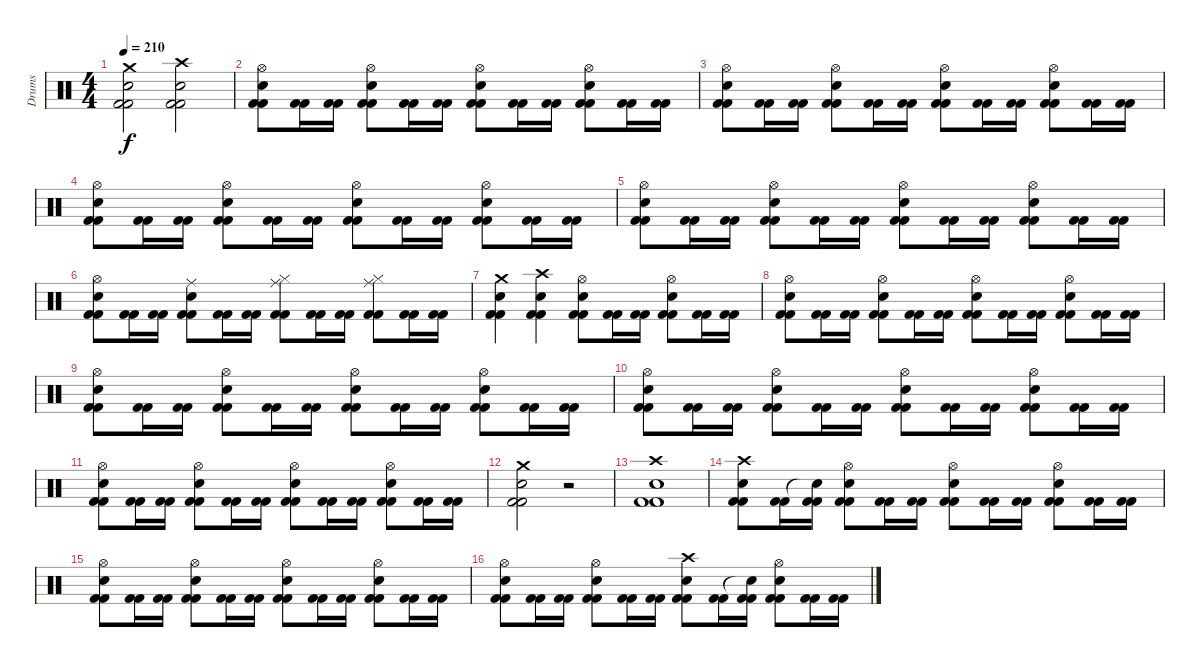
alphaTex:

\track ("Drums" "Drums") {instrument percussion}
\staff {score}
\articulation defaults
\ts (4 4)
\tempo 210
\clef neutral
\ks c
("Crash medium (hit)" "Snare (hit) 2" "Kick (hit) 2" "Kick (hit) 2").2{dy f} ("Crash high (hit)" "Snare (hit) 2" "Kick (hit) 2" "Kick (hit) 2").2 |
("Hi-Hat (open)" "Snare (hit) 2" "Kick (hit) 2" "Kick (hit) 2").8 ("Kick (hit) 2" "Kick (hit) 2").16 ("Kick (hit) 2" "Kick (hit) 2").16 ("Hi-Hat (open)" "Snare (hit) 2" "Kick (hit) 2" "Kick (hit) 2").8 ("Kick (hit) 2" "Kick (hit) 2").16 ("Kick (hit) 2" "Kick (hit) 2").16 ("Hi-Hat (open)" "Snare (hit) 2" "Kick (hit) 2" "Kick (hit) 2").8 ("Kick (hit) 2" "Kick (hit) 2").16 ("Kick (hit) 2" "Kick (hit) 2").16 ("Hi-Hat (open)" "Snare (hit) 2" "Kick (hit) 2" "Kick (hit) 2").8 ("Kick (hit) 2" "Kick (hit) 2").16 ("Kick (hit) 2" "Kick (hit) 2").16 |
("Hi-Hat (open)" "Snare (hit) 2" "Kick (hit) 2" "Kick (hit) 2").8 ("Kick (hit) 2" "Kick (hit) 2").16 ("Kick (hit) 2" "Kick (hit) 2").16 ("Hi-Hat (open)" "Snare (hit) 2" "Kick (hit) 2" "Kick (hit) 2").8 ("Kick (hit) 2" "Kick (hit) 2").16 ("Kick (hit) 2" "Kick (hit) 2").16 ("Hi-Hat (open)" "Snare (hit) 2" "Kick (hit) 2" "Kick (hit) 2").8 ("Kick (hit) 2" "Kick (hit) 2").16 ("Kick (hit) 2" "Kick (hit) 2").16 ("Hi-Hat (open)" "Snare (hit) 2" "Kick (hit) 2" "Kick (hit) 2").8 ("Kick (hit) 2" "Kick (hit) 2").16 ("Kick (hit) 2" "Kick (hit) 2").16 |
("Hi-Hat (open)" "Snare (hit) 2" "Kick (hit) 2" "Kick (hit) 2").8 ("Kick (hit) 2" "Kick (hit) 2").16 ("Kick (hit) 2" "Kick (hit) 2").16 ("Hi-Hat (open)" "Snare (hit) 2" "Kick (hit) 2" "Kick (hit) 2").8 ("Kick (hit) 2" "Kick (hit) 2").16 ("Kick (hit) 2" "Kick (hit) 2").16 ("Hi-Hat (open)" "Snare (hit) 2" "Kick (hit) 2" "Kick (hit) 2").8 ("Kick (hit) 2" "Kick (hit) 2").16 ("Kick (hit) 2" "Kick (hit) 2").16 ("Hi-Hat (open)" "Snare (hit) 2" "Kick (hit) 2" "Kick (hit) 2").8 ("Kick (hit) 2" "Kick (hit) 2").16 ("Kick (hit) 2" "Kick (hit) 2").16 |
("Hi-Hat (open)" "Snare (hit) 2" "Kick (hit) 2" "Kick (hit) 2").8 ("Kick (hit) 2" "Kick (hit) 2").16 ("Kick (hit) 2" "Kick (hit) 2").16 ("Hi-Hat (open)" "Snare (hit) 2" "Kick (hit) 2" "Kick (hit) 2").8 ("Kick (hit) 2" "Kick (hit) 2").16 ("Kick (hit) 2" "Kick (hit) 2").16 ("Hi-Hat (open)" "Snare (hit) 2" "Kick (hit) 2" "Kick (hit) 2").8 ("Kick (hit) 2" "Kick (hit) 2").16 ("Kick (hit) 2" "Kick (hit) 2").16 ("Hi-Hat (open)" "Snare (hit) 2" "Kick (hit) 2" "Kick (hit) 2").8 ("Kick (hit) 2" "Kick (hit) 2").16 ("Kick (hit) 2" "Kick (hit) 2").16 |
("Hi-Hat (open)" "Snare (hit) 2" "Kick (hit) 2" "Kick (hit) 2").8 ("Kick (hit) 2" "Kick (hit) 2").16 ("Kick (hit) 2" "Kick (hit) 2").16 ("Ride (middle)" "Snare (hit) 2" "Kick (hit) 2" "Kick (hit) 2").8 ("Kick (hit) 2" "Kick (hit) 2").16 ("Kick (hit) 2" "Kick (hit) 2").16 ("Ride (middle)" "Hi-Hat (closed)" "Kick (hit) 2" "Kick (hit) 2").8 ("Kick (hit) 2" "Kick (hit) 2").16 ("Kick (hit) 2" "Kick (hit) 2").16 ("Ride (middle)" "Hi-Hat (closed)" "Kick (hit) 2" "Kick (hit) 2").8 ("Kick (hit) 2" "Kick (hit) 2").16 ("Kick (hit) 2" "Kick (hit) 2").16 |
("Crash medium (hit)" "Snare (hit) 2" "Kick (hit) 2" "Kick (hit) 2").4 ("Crash high (hit)" "Snare (hit) 2" "Kick (hit) 2" "Kick (hit) 2").4 ("Hi-Hat (open)" "Snare (hit) 2" "Kick (hit) 2" "Kick (hit) 2").8 ("Kick (hit) 2" "Kick (hit) 2").16 ("Kick (hit) 2" "Kick (hit) 2").16 ("Hi-Hat (open)" "Snare (hit) 2" "Kick (hit) 2" "Kick (hit) 2").8 ("Kick (hit) 2" "Kick (hit) 2").16 ("Kick (hit) 2" "Kick (hit) 2").16 |
("Hi-Hat (open)" "Snare (hit) 2" "Kick (hit) 2" "Kick (hit) 2").8 ("Kick (hit) 2" "Kick (hit) 2").16 ("Kick (hit) 2" "Kick (hit) 2").16 ("Hi-Hat (open)" "Snare (hit) 2" "Kick (hit) 2" "Kick (hit) 2").8 ("Kick (hit) 2" "Kick (hit) 2").16 ("Kick (hit) 2" "Kick (hit) 2").16 ("Hi-Hat (open)" "Snare (hit) 2" "Kick (hit) 2" "Kick (hit) 2").8 ("Kick (hit) 2" "Kick (hit) 2").16 ("Kick (hit) 2" "Kick (hit) 2").16 ("Hi-Hat (open)" "Snare (hit) 2" "Kick (hit) 2" "Kick (hit) 2").8 ("Kick (hit) 2" "Kick (hit) 2").16 ("Kick (hit) 2" "Kick (hit) 2").16 |
("Hi-Hat (open)" "Snare (hit) 2" "Kick (hit) 2" "Kick (hit) 2").8 ("Kick (hit) 2" "Kick (hit) 2").16 ("Kick (hit) 2" "Kick (hit) 2").16 ("Hi-Hat (open)" "Snare (hit) 2" "Kick (hit) 2" "Kick (hit) 2").8 ("Kick (hit) 2" "Kick (hit) 2").16 ("Kick (hit) 2" "Kick (hit) 2").16 ("Hi-Hat (open)" "Snare (hit) 2" "Kick (hit) 2" "Kick (hit) 2").8 ("Kick (hit) 2" "Kick (hit) 2").16 ("Kick (hit) 2" "Kick (hit) 2").16 ("Hi-Hat (open)" "Snare (hit) 2" "Kick (hit) 2" "Kick (hit) 2").8 ("Kick (hit) 2" "Kick (hit) 2").16 ("Kick (hit) 2" "Kick (hit) 2").16 |
("Hi-Hat (open)" "Snare (hit) 2" "Kick (hit) 2" "Kick (hit) 2").8 ("Kick (hit) 2" "Kick (hit) 2").16 ("Kick (hit) 2" "Kick (hit) 2").16 ("Hi-Hat (open)" "Snare (hit) 2" "Kick (hit) 2" "Kick (hit) 2").8 ("Kick (hit) 2" "Kick (hit) 2").16 ("Kick (hit) 2" "Kick (hit) 2").16 ("Hi-Hat (open)" "Snare (hit) 2" "Kick (hit) 2" "Kick (hit) 2").8 ("Kick (hit) 2" "Kick (hit) 2").16 ("Kick (hit) 2" "Kick (hit) 2").16 ("Hi-Hat (open)" "Snare (hit) 2" "Kick (hit) 2" "Kick (hit) 2").8 ("Kick (hit) 2" "Kick (hit) 2").16 ("Kick (hit) 2" "Kick (hit) 2").16 |
("Hi-Hat (open)" "Snare (hit) 2" "Kick (hit) 2" "Kick (hit) 2").8 ("Kick (hit) 2" "Kick (hit) 2").16 ("Kick (hit) 2" "Kick (hit) 2").16 ("Hi-Hat (open)" "Snare (hit) 2" "Kick (hit) 2" "Kick (hit) 2").8 ("Kick (hit) 2" "Kick (hit) 2").16 ("Kick (hit) 2" "Kick (hit) 2").16 ("Hi-Hat (open)" "Snare (hit) 2" "Kick (hit) 2" "Kick (hit) 2").8 ("Kick (hit) 2" "Kick (hit) 2").16 ("Kick (hit) 2" "Kick (hit) 2").16 ("Hi-Hat (open)" "Snare (hit) 2" "Kick (hit) 2" "Kick (hit) 2").8 ("Kick (hit) 2" "Kick (hit) 2").16 ("Kick (hit) 2" "Kick (hit) 2").16 |
("Crash medium (hit)" "Snare (hit) 2" "Kick (hit) 2" "Kick (hit) 2").2 r.2 |
("Crash high (hit)" "Snare (hit) 2" "Kick (hit) 2" "Kick (hit) 2").1 |
("Crash high (hit)" "Snare (hit) 2" "Kick (hit) 2" "Kick (hit) 2").8 ("Kick (hit) 2" "Kick (hit) 2").16 ("Snare (hit)"{t} "Kick (hit) 2" "Kick (hit) 2").16 ("Hi-Hat (open)" "Snare (hit) 2" "Kick (hit) 2" "Kick (hit) 2").8 ("Kick (hit) 2" "Kick (hit) 2").16 ("Kick (hit) 2" "Kick (hit) 2").16 ("Hi-Hat (open)" "Snare (hit) 2" "Kick (hit) 2" "Kick (hit) 2").8 ("Kick (hit) 2" "Kick (hit) 2").16 ("Kick (hit) 2" "Kick (hit) 2").16 ("Hi-Hat (open)" "Snare (hit) 2" "Kick (hit) 2" "Kick (hit) 2").8 ("Kick (hit) 2" "Kick (hit) 2").16 ("Kick (hit) 2" "Kick (hit) 2").16 |
("Hi-Hat (open)" "Snare (hit) 2" "Kick (hit) 2" "Kick (hit) 2").8 ("Kick (hit) 2" "Kick (hit) 2").16 ("Kick (hit) 2" "Kick (hit) 2").16 ("Hi-Hat (open)" "Snare (hit) 2" "Kick (hit) 2" "Kick (hit) 2").8 ("Kick (hit) 2" "Kick (hit) 2").16 ("Kick (hit) 2" "Kick (hit) 2").16 ("Hi-Hat (open)" "Snare (hit) 2" "Kick (hit) 2" "Kick (hit) 2").8 ("Kick (hit) 2" "Kick (hit) 2").16 ("Kick (hit) 2" "Kick (hit) 2").16 ("Hi-Hat (open)" "Snare (hit) 2" "Kick (hit) 2" "Kick (hit) 2").8 ("Kick (hit) 2" "Kick (hit) 2").16 ("Kick (hit) 2" "Kick (hit) 2").16 |
("Hi-Hat (open)" "Snare (hit) 2" "Kick (hit) 2" "Kick (hit) 2").8 ("Kick (hit) 2" "Kick (hit) 2").16 ("Kick (hit) 2" "Kick (hit) 2").16 ("Hi-Hat (open)" "Snare (hit) 2" "Kick (hit) 2" "Kick (hit) 2").8 ("Kick (hit) 2" "Kick (hit) 2").16 ("Kick (hit) 2" "Kick (hit) 2").16 ("Crash high (hit)" "Snare (hit) 2" "Kick (hit) 2" "Kick (hit) 2").8 ("Kick (hit) 2" "Kick (hit) 2").16 ("Snare (hit)"{t} "Kick (hit) 2" "Kick (hit) 2").16 ("Hi-Hat (open)" "Snare (hit) 2" "Kick (hit) 2" "Kick (hit) 2").8 ("Kick (hit) 2" "Kick (hit) 2").16 ("Kick (hit) 2" "Kick (hit) 2").16
